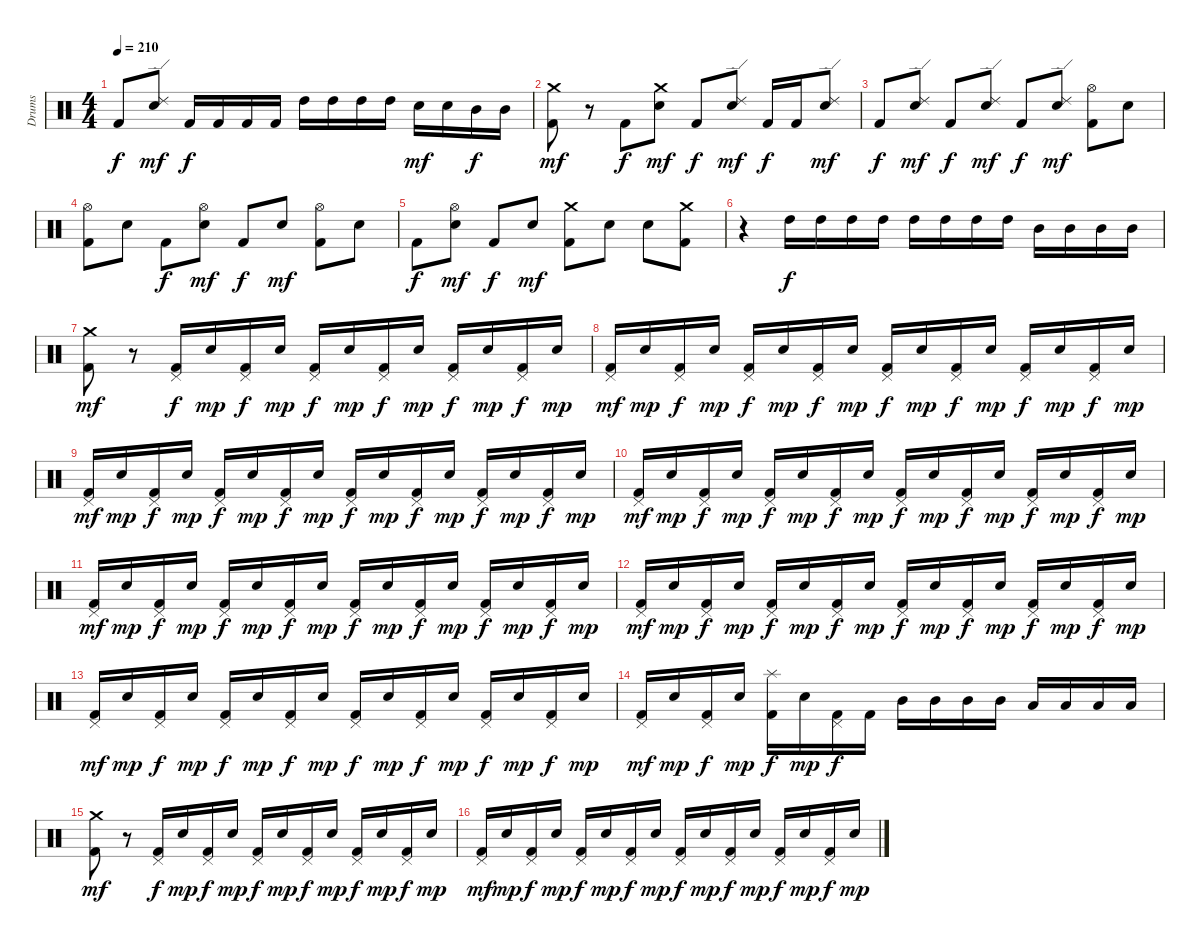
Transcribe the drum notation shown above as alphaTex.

\track ("Drums" "Drums") {instrument percussion}
\staff {score}
\articulation defaults
\ts (4 4)
\tempo 210
\clef neutral
\ks c "Kick (hit) 2".8{dy f}
("Ride (edge) 2" "Electric Snare (hit)").8{dy mf} "Kick (hit) 2".16{dy f} "Kick (hit) 2".16 "Kick (hit) 2".16 "Kick (hit) 2".16 "High Tom (hit)".16 "High Tom (hit)".16 "High Tom (hit)".16 "High Tom (hit)".16 "Electric Snare (hit)".16{dy mf} "Electric Snare (hit)".16 "Mid Tom (hit)".16{dy f} "Mid Tom (hit)".16 |
("Crash medium (hit)" "Kick (hit) 2").8{dy mf} r.8 "Kick (hit) 2".8{dy f} ("Crash medium (hit)" "Electric Snare (hit)").8{dy mf} "Kick (hit) 2".8{dy f} ("Ride (edge) 2" "Electric Snare (hit)").8{dy mf} "Kick (hit) 2".16{dy f} "Kick (hit) 2".16 ("Ride (edge) 2" "Electric Snare (hit)").8{dy mf} |
"Kick (hit) 2".8{dy f} ("Ride (edge) 2" "Electric Snare (hit)").8{dy mf} "Kick (hit) 2".8{dy f} ("Ride (edge) 2" "Electric Snare (hit)").8{dy mf} "Kick (hit) 2".8{dy f} ("Ride (edge) 2" "Electric Snare (hit)").8{dy mf} ("Hi-Hat (open)" "Kick (hit) 2").8 "Electric Snare (hit)".8 |
("Hi-Hat (open)" "Kick (hit) 2").8 "Electric Snare (hit)".8 "Kick (hit) 2".8{dy f} ("Hi-Hat (open)" "Electric Snare (hit)").8{dy mf} "Kick (hit) 2".8{dy f} "Electric Snare (hit)".8{dy mf} ("Hi-Hat (open)" "Kick (hit) 2").8 "Electric Snare (hit)".8 |
"Kick (hit) 2".8{dy f} ("Hi-Hat (open)" "Electric Snare (hit)").8{dy mf} "Kick (hit) 2".8{dy f} "Electric Snare (hit)".8{dy mf} ("Crash medium (hit)" "Kick (hit) 2").8 "Electric Snare (hit)".8 "Electric Snare (hit)".8 ("Crash medium (hit)" "Kick (hit) 2").8 |
r.4 "High Tom (hit)".16{dy f} "High Tom (hit)".16 "High Tom (hit)".16 "High Tom (hit)".16 "High Tom (hit)".16 "High Tom (hit)".16 "High Tom (hit)".16 "High Tom (hit)".16 "Mid Tom (hit)".16 "Mid Tom (hit)".16 "Mid Tom (hit)".16 "Mid Tom (hit)".16 |
("Crash medium (hit)" "Kick (hit) 2").8{dy mf} r.8 ("Pedal Hi-Hat (hit)" "Kick (hit) 2").16{dy f} "Electric Snare (hit)".16{dy mp} ("Pedal Hi-Hat (hit)" "Kick (hit) 2").16{dy f} "Electric Snare (hit)".16{dy mp} ("Pedal Hi-Hat (hit)" "Kick (hit) 2").16{dy f} "Electric Snare (hit)".16{dy mp} ("Pedal Hi-Hat (hit)" "Kick (hit) 2").16{dy f} "Electric Snare (hit)".16{dy mp} ("Pedal Hi-Hat (hit)" "Kick (hit) 2").16{dy f} "Electric Snare (hit)".16{dy mp} ("Pedal Hi-Hat (hit)" "Kick (hit) 2").16{dy f} "Electric Snare (hit)".16{dy mp} |
("Pedal Hi-Hat (hit)" "Kick (hit) 2").16{dy mf} "Electric Snare (hit)".16{dy mp} ("Pedal Hi-Hat (hit)" "Kick (hit) 2").16{dy f} "Electric Snare (hit)".16{dy mp} ("Pedal Hi-Hat (hit)" "Kick (hit) 2").16{dy f} "Electric Snare (hit)".16{dy mp} ("Pedal Hi-Hat (hit)" "Kick (hit) 2").16{dy f} "Electric Snare (hit)".16{dy mp} ("Pedal Hi-Hat (hit)" "Kick (hit) 2").16{dy f} "Electric Snare (hit)".16{dy mp} ("Pedal Hi-Hat (hit)" "Kick (hit) 2").16{dy f} "Electric Snare (hit)".16{dy mp} ("Pedal Hi-Hat (hit)" "Kick (hit) 2").16{dy f} "Electric Snare (hit)".16{dy mp} ("Pedal Hi-Hat (hit)" "Kick (hit) 2").16{dy f} "Electric Snare (hit)".16{dy mp} |
("Pedal Hi-Hat (hit)" "Kick (hit) 2").16{dy mf} "Electric Snare (hit)".16{dy mp} ("Pedal Hi-Hat (hit)" "Kick (hit) 2").16{dy f} "Electric Snare (hit)".16{dy mp} ("Pedal Hi-Hat (hit)" "Kick (hit) 2").16{dy f} "Electric Snare (hit)".16{dy mp} ("Pedal Hi-Hat (hit)" "Kick (hit) 2").16{dy f} "Electric Snare (hit)".16{dy mp} ("Pedal Hi-Hat (hit)" "Kick (hit) 2").16{dy f} "Electric Snare (hit)".16{dy mp} ("Pedal Hi-Hat (hit)" "Kick (hit) 2").16{dy f} "Electric Snare (hit)".16{dy mp} ("Pedal Hi-Hat (hit)" "Kick (hit) 2").16{dy f} "Electric Snare (hit)".16{dy mp} ("Pedal Hi-Hat (hit)" "Kick (hit) 2").16{dy f} "Electric Snare (hit)".16{dy mp} |
("Pedal Hi-Hat (hit)" "Kick (hit) 2").16{dy mf} "Electric Snare (hit)".16{dy mp} ("Pedal Hi-Hat (hit)" "Kick (hit) 2").16{dy f} "Electric Snare (hit)".16{dy mp} ("Pedal Hi-Hat (hit)" "Kick (hit) 2").16{dy f} "Electric Snare (hit)".16{dy mp} ("Pedal Hi-Hat (hit)" "Kick (hit) 2").16{dy f} "Electric Snare (hit)".16{dy mp} ("Pedal Hi-Hat (hit)" "Kick (hit) 2").16{dy f} "Electric Snare (hit)".16{dy mp} ("Pedal Hi-Hat (hit)" "Kick (hit) 2").16{dy f} "Electric Snare (hit)".16{dy mp} ("Pedal Hi-Hat (hit)" "Kick (hit) 2").16{dy f} "Electric Snare (hit)".16{dy mp} ("Pedal Hi-Hat (hit)" "Kick (hit) 2").16{dy f} "Electric Snare (hit)".16{dy mp} |
("Pedal Hi-Hat (hit)" "Kick (hit) 2").16{dy mf} "Electric Snare (hit)".16{dy mp} ("Pedal Hi-Hat (hit)" "Kick (hit) 2").16{dy f} "Electric Snare (hit)".16{dy mp} ("Pedal Hi-Hat (hit)" "Kick (hit) 2").16{dy f} "Electric Snare (hit)".16{dy mp} ("Pedal Hi-Hat (hit)" "Kick (hit) 2").16{dy f} "Electric Snare (hit)".16{dy mp} ("Pedal Hi-Hat (hit)" "Kick (hit) 2").16{dy f} "Electric Snare (hit)".16{dy mp} ("Pedal Hi-Hat (hit)" "Kick (hit) 2").16{dy f} "Electric Snare (hit)".16{dy mp} ("Pedal Hi-Hat (hit)" "Kick (hit) 2").16{dy f} "Electric Snare (hit)".16{dy mp} ("Pedal Hi-Hat (hit)" "Kick (hit) 2").16{dy f} "Electric Snare (hit)".16{dy mp} |
("Pedal Hi-Hat (hit)" "Kick (hit) 2").16{dy mf} "Electric Snare (hit)".16{dy mp} ("Pedal Hi-Hat (hit)" "Kick (hit) 2").16{dy f} "Electric Snare (hit)".16{dy mp} ("Pedal Hi-Hat (hit)" "Kick (hit) 2").16{dy f} "Electric Snare (hit)".16{dy mp} ("Pedal Hi-Hat (hit)" "Kick (hit) 2").16{dy f} "Electric Snare (hit)".16{dy mp} ("Pedal Hi-Hat (hit)" "Kick (hit) 2").16{dy f} "Electric Snare (hit)".16{dy mp} ("Pedal Hi-Hat (hit)" "Kick (hit) 2").16{dy f} "Electric Snare (hit)".16{dy mp} ("Pedal Hi-Hat (hit)" "Kick (hit) 2").16{dy f} "Electric Snare (hit)".16{dy mp} ("Pedal Hi-Hat (hit)" "Kick (hit) 2").16{dy f} "Electric Snare (hit)".16{dy mp} |
("Pedal Hi-Hat (hit)" "Kick (hit) 2").16{dy mf} "Electric Snare (hit)".16{dy mp} ("Pedal Hi-Hat (hit)" "Kick (hit) 2").16{dy f} "Electric Snare (hit)".16{dy mp} ("Pedal Hi-Hat (hit)" "Kick (hit) 2").16{dy f} "Electric Snare (hit)".16{dy mp} ("Pedal Hi-Hat (hit)" "Kick (hit) 2").16{dy f} "Electric Snare (hit)".16{dy mp} ("Pedal Hi-Hat (hit)" "Kick (hit) 2").16{dy f} "Electric Snare (hit)".16{dy mp} ("Pedal Hi-Hat (hit)" "Kick (hit) 2").16{dy f} "Electric Snare (hit)".16{dy mp} ("Pedal Hi-Hat (hit)" "Kick (hit) 2").16{dy f} "Electric Snare (hit)".16{dy mp} ("Pedal Hi-Hat (hit)" "Kick (hit) 2").16{dy f} "Electric Snare (hit)".16{dy mp} |
("Pedal Hi-Hat (hit)" "Kick (hit) 2").16{dy mf} "Electric Snare (hit)".16{dy mp} ("Pedal Hi-Hat (hit)" "Kick (hit) 2").16{dy f} "Electric Snare (hit)".16{dy mp} ("Splash (hit)" "Kick (hit) 2").16{dy f} "Electric Snare (hit)".16{dy mp} ("Pedal Hi-Hat (hit)" "Kick (hit) 2").16{dy f} "Kick (hit) 2".16 "Mid Tom (hit)".16 "Mid Tom (hit)".16 "Mid Tom (hit)".16 "Mid Tom (hit)".16 "Low Tom (hit)".16 "Low Tom (hit)".16 "Low Tom (hit)".16 "Low Tom (hit)".16 |
("Crash medium (hit)" "Kick (hit) 2").8{dy mf} r.8 ("Pedal Hi-Hat (hit)" "Kick (hit) 2").16{dy f} "Electric Snare (hit)".16{dy mp} ("Pedal Hi-Hat (hit)" "Kick (hit) 2").16{dy f} "Electric Snare (hit)".16{dy mp} ("Pedal Hi-Hat (hit)" "Kick (hit) 2").16{dy f} "Electric Snare (hit)".16{dy mp} ("Pedal Hi-Hat (hit)" "Kick (hit) 2").16{dy f} "Electric Snare (hit)".16{dy mp} ("Pedal Hi-Hat (hit)" "Kick (hit) 2").16{dy f} "Electric Snare (hit)".16{dy mp} ("Pedal Hi-Hat (hit)" "Kick (hit) 2").16{dy f} "Electric Snare (hit)".16{dy mp} |
("Pedal Hi-Hat (hit)" "Kick (hit) 2").16{dy mf} "Electric Snare (hit)".16{dy mp} ("Pedal Hi-Hat (hit)" "Kick (hit) 2").16{dy f} "Electric Snare (hit)".16{dy mp} ("Pedal Hi-Hat (hit)" "Kick (hit) 2").16{dy f} "Electric Snare (hit)".16{dy mp} ("Pedal Hi-Hat (hit)" "Kick (hit) 2").16{dy f} "Electric Snare (hit)".16{dy mp} ("Pedal Hi-Hat (hit)" "Kick (hit) 2").16{dy f} "Electric Snare (hit)".16{dy mp} ("Pedal Hi-Hat (hit)" "Kick (hit) 2").16{dy f} "Electric Snare (hit)".16{dy mp} ("Pedal Hi-Hat (hit)" "Kick (hit) 2").16{dy f} "Electric Snare (hit)".16{dy mp} ("Pedal Hi-Hat (hit)" "Kick (hit) 2").16{dy f} "Electric Snare (hit)".16{dy mp}
